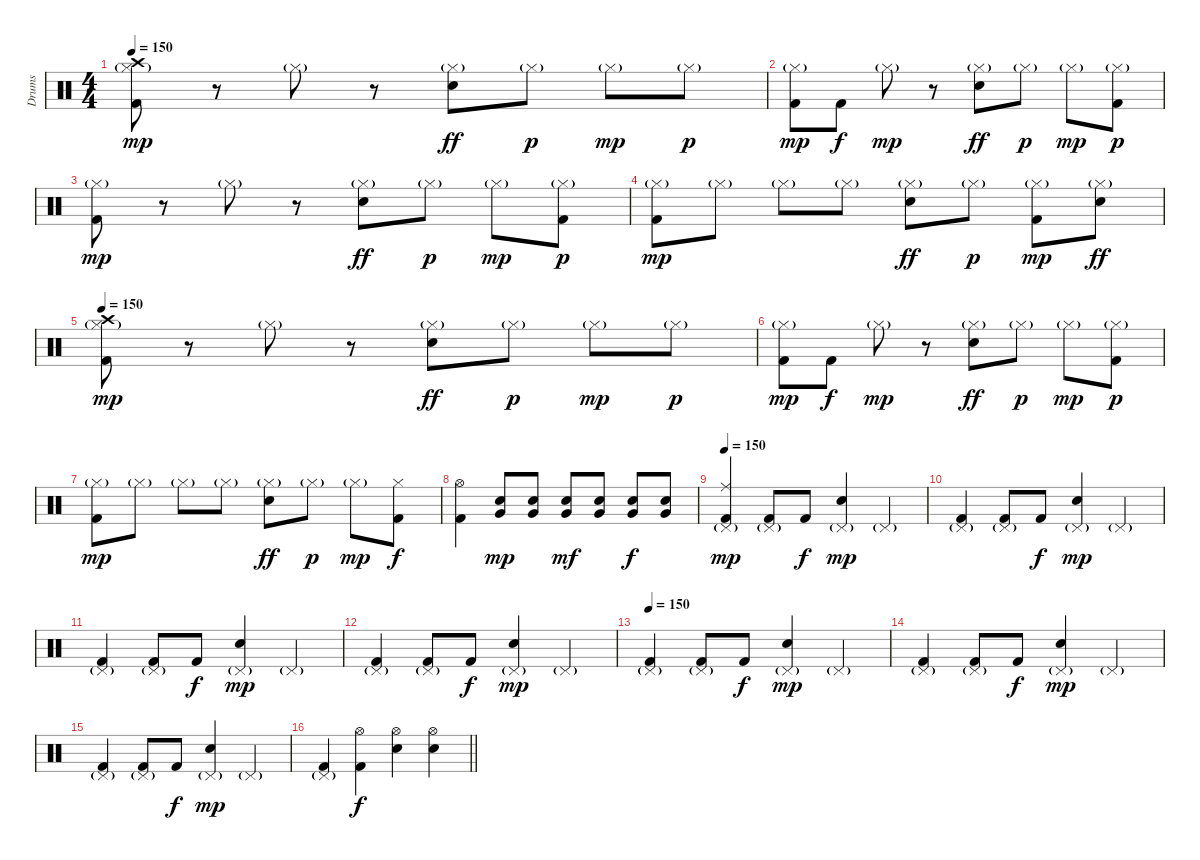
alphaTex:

\track ("Drums" "Drums") {instrument percussion}
\staff {score}
\articulation defaults
\ts (4 4)
\tempo 150
\clef neutral
\ks c
("Crash high (hit)" "Hi-Hat (closed)"{g} "Kick (hit) 2").8{dy mp} r.8 "Hi-Hat (closed)"{g}.8 r.8 ("Hi-Hat (closed)"{g} "Electric Snare (hit)").8{dy ff} "Hi-Hat (closed)"{g}.8{dy p} "Hi-Hat (closed)"{g}.8{dy mp} "Hi-Hat (closed)"{g}.8{dy p} |
("Hi-Hat (closed)"{g} "Kick (hit) 2").8{dy mp} "Kick (hit) 2".8{dy f} "Hi-Hat (closed)"{g}.8{dy mp} r.8 ("Hi-Hat (closed)"{g} "Electric Snare (hit)").8{dy ff} "Hi-Hat (closed)"{g}.8{dy p} "Hi-Hat (closed)"{g}.8{dy mp} ("Hi-Hat (closed)"{g} "Kick (hit) 2").8{dy p} |
("Hi-Hat (closed)"{g} "Kick (hit) 2").8{dy mp} r.8 "Hi-Hat (closed)"{g}.8 r.8 ("Hi-Hat (closed)"{g} "Electric Snare (hit)").8{dy ff} "Hi-Hat (closed)"{g}.8{dy p} "Hi-Hat (closed)"{g}.8{dy mp} ("Hi-Hat (closed)"{g} "Kick (hit) 2").8{dy p} |
("Hi-Hat (closed)"{g} "Kick (hit) 2").8{dy mp} "Hi-Hat (closed)"{g}.8 "Hi-Hat (closed)"{g}.8 "Hi-Hat (closed)"{g}.8 ("Hi-Hat (closed)"{g} "Electric Snare (hit)").8{dy ff} "Hi-Hat (closed)"{g}.8{dy p} ("Hi-Hat (closed)"{g} "Kick (hit) 2").8{dy mp} ("Hi-Hat (closed)"{g} "Electric Snare (hit)").8{dy ff} |
\tempo 150
("Crash high (hit)" "Hi-Hat (closed)"{g} "Kick (hit) 2").8{dy mp} r.8 "Hi-Hat (closed)"{g}.8 r.8 ("Hi-Hat (closed)"{g} "Electric Snare (hit)").8{dy ff} "Hi-Hat (closed)"{g}.8{dy p} "Hi-Hat (closed)"{g}.8{dy mp} "Hi-Hat (closed)"{g}.8{dy p} |
("Hi-Hat (closed)"{g} "Kick (hit) 2").8{dy mp} "Kick (hit) 2".8{dy f} "Hi-Hat (closed)"{g}.8{dy mp} r.8 ("Hi-Hat (closed)"{g} "Electric Snare (hit)").8{dy ff} "Hi-Hat (closed)"{g}.8{dy p} "Hi-Hat (closed)"{g}.8{dy mp} ("Hi-Hat (closed)"{g} "Kick (hit) 2").8{dy p} |
("Hi-Hat (closed)"{g} "Kick (hit) 2").8{dy mp} "Hi-Hat (closed)"{g}.8 "Hi-Hat (closed)"{g}.8 "Hi-Hat (closed)"{g}.8 ("Hi-Hat (closed)"{g} "Electric Snare (hit)").8{dy ff} "Hi-Hat (closed)"{g}.8{dy p} "Hi-Hat (closed)"{g}.8{dy mp} ("Hi-Hat (closed)" "Kick (hit) 2").8{dy f} |
("Hi-Hat (open)" "Kick (hit) 2").4 ("Very Low Tom (hit)" "Electric Snare (hit)").8{dy mp} ("Very Low Tom (hit)" "Electric Snare (hit)").8 ("Very Low Tom (hit)" "Electric Snare (hit)").8{dy mf} ("Very Low Tom (hit)" "Electric Snare (hit)").8 ("Very Low Tom (hit)" "Electric Snare (hit)").8{dy f} ("Very Low Tom (hit)" "Electric Snare (hit)").8 |
\tempo 150
("Ride (middle)" "Pedal Hi-Hat (hit)"{g} "Kick (hit) 2").4{dy mp} ("Pedal Hi-Hat (hit)"{g} "Kick (hit) 2").8 "Kick (hit) 2".8{dy f} ("Pedal Hi-Hat (hit)"{g} "Electric Snare (hit)").4{dy mp} "Pedal Hi-Hat (hit)"{g}.4 |
("Pedal Hi-Hat (hit)"{g} "Kick (hit) 2").4 ("Pedal Hi-Hat (hit)"{g} "Kick (hit) 2").8 "Kick (hit) 2".8{dy f} ("Pedal Hi-Hat (hit)"{g} "Electric Snare (hit)").4{dy mp} "Pedal Hi-Hat (hit)"{g}.4 |
("Pedal Hi-Hat (hit)"{g} "Kick (hit) 2").4 ("Pedal Hi-Hat (hit)"{g} "Kick (hit) 2").8 "Kick (hit) 2".8{dy f} ("Pedal Hi-Hat (hit)"{g} "Electric Snare (hit)").4{dy mp} "Pedal Hi-Hat (hit)"{g}.4 |
("Pedal Hi-Hat (hit)"{g} "Kick (hit) 2").4 ("Pedal Hi-Hat (hit)"{g} "Kick (hit) 2").8 "Kick (hit) 2".8{dy f} ("Pedal Hi-Hat (hit)"{g} "Electric Snare (hit)").4{dy mp} "Pedal Hi-Hat (hit)"{g}.4 |
\tempo 150
("Pedal Hi-Hat (hit)"{g} "Kick (hit) 2").4 ("Pedal Hi-Hat (hit)"{g} "Kick (hit) 2").8 "Kick (hit) 2".8{dy f} ("Pedal Hi-Hat (hit)"{g} "Electric Snare (hit)").4{dy mp} "Pedal Hi-Hat (hit)"{g}.4 |
("Pedal Hi-Hat (hit)"{g} "Kick (hit) 2").4 ("Pedal Hi-Hat (hit)"{g} "Kick (hit) 2").8 "Kick (hit) 2".8{dy f} ("Pedal Hi-Hat (hit)"{g} "Electric Snare (hit)").4{dy mp} "Pedal Hi-Hat (hit)"{g}.4 |
("Pedal Hi-Hat (hit)"{g} "Kick (hit) 2").4 ("Pedal Hi-Hat (hit)"{g} "Kick (hit) 2").8 "Kick (hit) 2".8{dy f} ("Pedal Hi-Hat (hit)"{g} "Electric Snare (hit)").4{dy mp} "Pedal Hi-Hat (hit)"{g}.4 |
\barLineRight lightlight
("Pedal Hi-Hat (hit)"{g} "Kick (hit) 2").4 ("Hi-Hat (open)" "Kick (hit) 2").4{dy f} ("Hi-Hat (open)" "Electric Snare (hit)").4 ("Hi-Hat (open)" "Electric Snare (hit)").4
